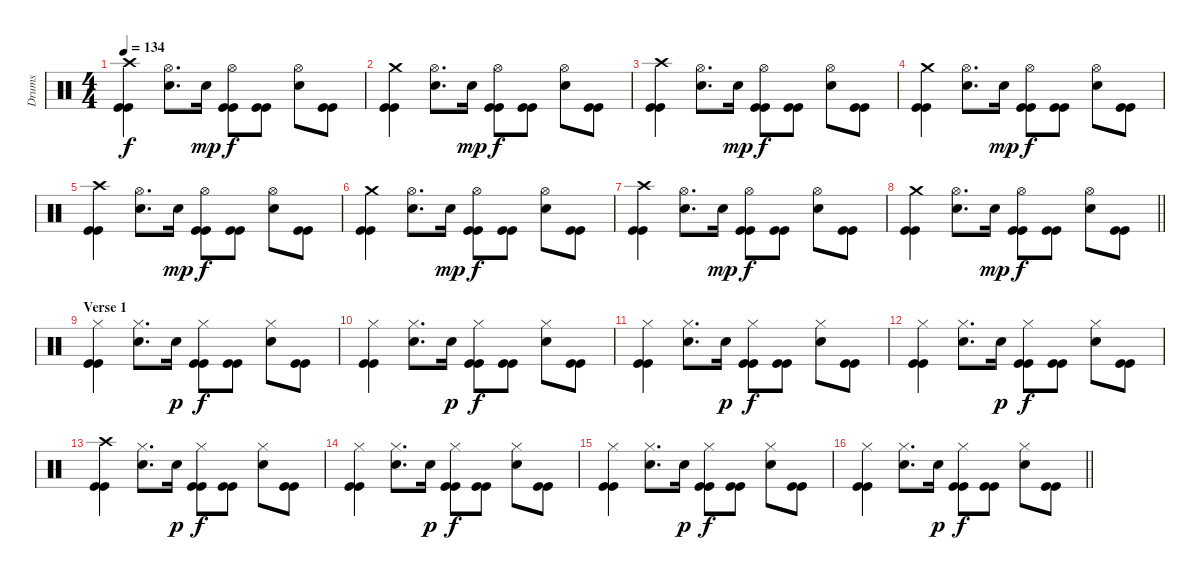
\track ("Drums" "Drums") {instrument percussion}
\staff {score}
\articulation defaults
\ts (4 4)
\tempo 134
\clef neutral
\ks c
("Crash high (hit)" "Kick (hit)" "Kick (hit)").4{dy f} ("Hi-Hat (open)" "Electric Snare (hit)").8{d} "Electric Snare (hit)".16{dy mp} ("Hi-Hat (open)" "Kick (hit)" "Kick (hit)").8{dy f} ("Kick (hit)" "Kick (hit)").8 ("Hi-Hat (open)" "Electric Snare (hit)").8 ("Kick (hit)" "Kick (hit)").8 |
("Crash medium (hit)" "Kick (hit)" "Kick (hit)").4 ("Hi-Hat (open)" "Electric Snare (hit)").8{d} "Electric Snare (hit)".16{dy mp} ("Hi-Hat (open)" "Kick (hit)" "Kick (hit)").8{dy f} ("Kick (hit)" "Kick (hit)").8 ("Hi-Hat (open)" "Electric Snare (hit)").8 ("Kick (hit)" "Kick (hit)").8 |
("Crash high (hit)" "Kick (hit)" "Kick (hit)").4 ("Hi-Hat (open)" "Electric Snare (hit)").8{d} "Electric Snare (hit)".16{dy mp} ("Hi-Hat (open)" "Kick (hit)" "Kick (hit)").8{dy f} ("Kick (hit)" "Kick (hit)").8 ("Hi-Hat (open)" "Electric Snare (hit)").8 ("Kick (hit)" "Kick (hit)").8 |
("Crash medium (hit)" "Kick (hit)" "Kick (hit)").4 ("Hi-Hat (open)" "Electric Snare (hit)").8{d} "Electric Snare (hit)".16{dy mp} ("Hi-Hat (open)" "Kick (hit)" "Kick (hit)").8{dy f} ("Kick (hit)" "Kick (hit)").8 ("Hi-Hat (open)" "Electric Snare (hit)").8 ("Kick (hit)" "Kick (hit)").8 |
("Crash high (hit)" "Kick (hit)" "Kick (hit)").4 ("Hi-Hat (open)" "Electric Snare (hit)").8{d} "Electric Snare (hit)".16{dy mp} ("Hi-Hat (open)" "Kick (hit)" "Kick (hit)").8{dy f} ("Kick (hit)" "Kick (hit)").8 ("Hi-Hat (open)" "Electric Snare (hit)").8 ("Kick (hit)" "Kick (hit)").8 |
("Crash medium (hit)" "Kick (hit)" "Kick (hit)").4 ("Hi-Hat (open)" "Electric Snare (hit)").8{d} "Electric Snare (hit)".16{dy mp} ("Hi-Hat (open)" "Kick (hit)" "Kick (hit)").8{dy f} ("Kick (hit)" "Kick (hit)").8 ("Hi-Hat (open)" "Electric Snare (hit)").8 ("Kick (hit)" "Kick (hit)").8 |
("Crash high (hit)" "Kick (hit)" "Kick (hit)").4 ("Hi-Hat (open)" "Electric Snare (hit)").8{d} "Electric Snare (hit)".16{dy mp} ("Hi-Hat (open)" "Kick (hit)" "Kick (hit)").8{dy f} ("Kick (hit)" "Kick (hit)").8 ("Hi-Hat (open)" "Electric Snare (hit)").8 ("Kick (hit)" "Kick (hit)").8 |
\barLineRight lightlight
("Crash medium (hit)" "Kick (hit)" "Kick (hit)").4 ("Hi-Hat (open)" "Electric Snare (hit)").8{d} "Electric Snare (hit)".16{dy mp} ("Hi-Hat (open)" "Kick (hit)" "Kick (hit)").8{dy f} ("Kick (hit)" "Kick (hit)").8 ("Hi-Hat (open)" "Electric Snare (hit)").8 ("Kick (hit)" "Kick (hit)").8 |
\section ("" "Verse 1")
("Hi-Hat (closed)" "Kick (hit)" "Kick (hit)").4 ("Hi-Hat (closed)" "Electric Snare (hit)").8{d} "Electric Snare (hit)".16{dy p} ("Hi-Hat (closed)" "Kick (hit)" "Kick (hit)").8{dy f} ("Kick (hit)" "Kick (hit)").8 ("Hi-Hat (closed)" "Electric Snare (hit)").8 ("Kick (hit)" "Kick (hit)").8 |
("Hi-Hat (closed)" "Kick (hit)" "Kick (hit)").4 ("Hi-Hat (closed)" "Electric Snare (hit)").8{d} "Electric Snare (hit)".16{dy p} ("Hi-Hat (closed)" "Kick (hit)" "Kick (hit)").8{dy f} ("Kick (hit)" "Kick (hit)").8 ("Hi-Hat (closed)" "Electric Snare (hit)").8 ("Kick (hit)" "Kick (hit)").8 |
("Hi-Hat (closed)" "Kick (hit)" "Kick (hit)").4 ("Hi-Hat (closed)" "Electric Snare (hit)").8{d} "Electric Snare (hit)".16{dy p} ("Hi-Hat (closed)" "Kick (hit)" "Kick (hit)").8{dy f} ("Kick (hit)" "Kick (hit)").8 ("Hi-Hat (closed)" "Electric Snare (hit)").8 ("Kick (hit)" "Kick (hit)").8 |
("Hi-Hat (closed)" "Kick (hit)" "Kick (hit)").4 ("Hi-Hat (closed)" "Electric Snare (hit)").8{d} "Electric Snare (hit)".16{dy p} ("Hi-Hat (closed)" "Kick (hit)" "Kick (hit)").8{dy f} ("Kick (hit)" "Kick (hit)").8 ("Hi-Hat (closed)" "Electric Snare (hit)").8 ("Kick (hit)" "Kick (hit)").8 |
("Crash high (hit)" "Kick (hit)" "Kick (hit)").4 ("Hi-Hat (closed)" "Electric Snare (hit)").8{d} "Electric Snare (hit)".16{dy p} ("Hi-Hat (closed)" "Kick (hit)" "Kick (hit)").8{dy f} ("Kick (hit)" "Kick (hit)").8 ("Hi-Hat (closed)" "Electric Snare (hit)").8 ("Kick (hit)" "Kick (hit)").8 |
("Hi-Hat (closed)" "Kick (hit)" "Kick (hit)").4 ("Hi-Hat (closed)" "Electric Snare (hit)").8{d} "Electric Snare (hit)".16{dy p} ("Hi-Hat (closed)" "Kick (hit)" "Kick (hit)").8{dy f} ("Kick (hit)" "Kick (hit)").8 ("Hi-Hat (closed)" "Electric Snare (hit)").8 ("Kick (hit)" "Kick (hit)").8 |
("Hi-Hat (closed)" "Kick (hit)" "Kick (hit)").4 ("Hi-Hat (closed)" "Electric Snare (hit)").8{d} "Electric Snare (hit)".16{dy p} ("Hi-Hat (closed)" "Kick (hit)" "Kick (hit)").8{dy f} ("Kick (hit)" "Kick (hit)").8 ("Hi-Hat (closed)" "Electric Snare (hit)").8 ("Kick (hit)" "Kick (hit)").8 |
\barLineRight lightlight
("Hi-Hat (closed)" "Kick (hit)" "Kick (hit)").4 ("Hi-Hat (closed)" "Electric Snare (hit)").8{d} "Electric Snare (hit)".16{dy p} ("Hi-Hat (closed)" "Kick (hit)" "Kick (hit)").8{dy f} ("Kick (hit)" "Kick (hit)").8 ("Hi-Hat (closed)" "Electric Snare (hit)").8 ("Kick (hit)" "Kick (hit)").8
